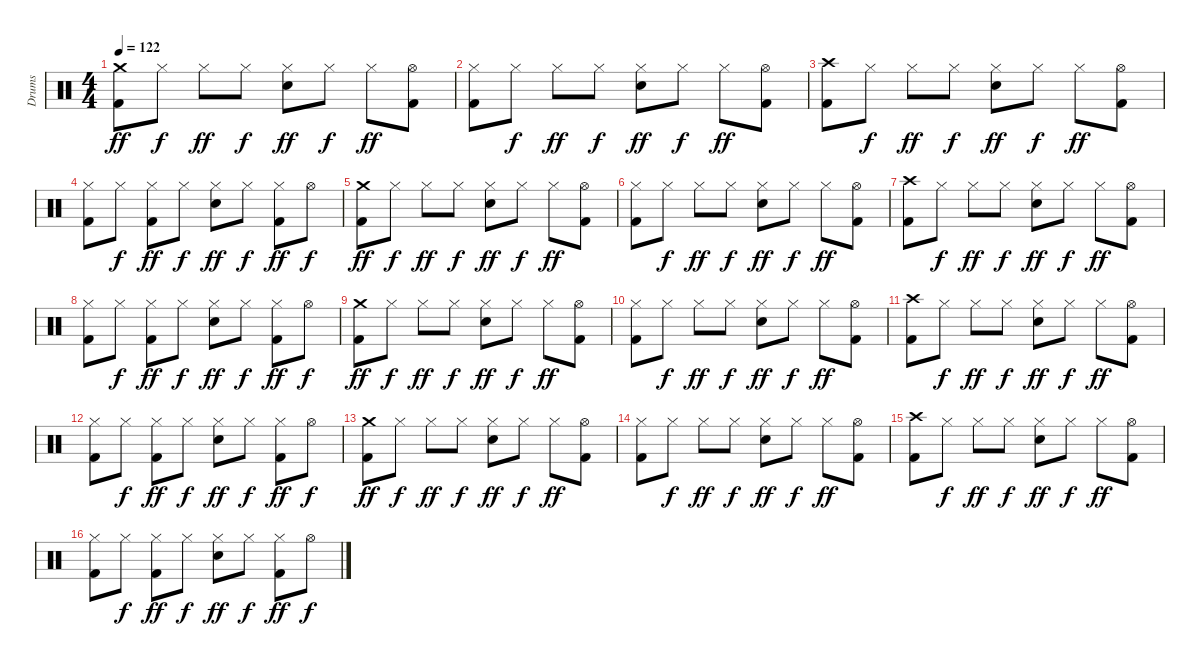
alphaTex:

\track ("Drums" "Drums") {instrument percussion}
\staff {score}
\articulation defaults
\ts (4 4)
\tempo 122
\clef neutral
\ks c
("Crash medium (hit)" "Kick (hit) 2").8{dy ff} "Hi-Hat (closed)".8{dy f} "Hi-Hat (closed)".8{dy ff} "Hi-Hat (closed)".8{dy f} ("Hi-Hat (closed)" "Snare (hit) 2").8{dy ff} "Hi-Hat (closed)".8{dy f} "Hi-Hat (closed)".8{dy ff} ("Hi-Hat (open)" "Kick (hit) 2").8 |
("Hi-Hat (closed)" "Kick (hit) 2").8 "Hi-Hat (closed)".8{dy f} "Hi-Hat (closed)".8{dy ff} "Hi-Hat (closed)".8{dy f} ("Hi-Hat (closed)" "Snare (hit) 2").8{dy ff} "Hi-Hat (closed)".8{dy f} "Hi-Hat (closed)".8{dy ff} ("Hi-Hat (open)" "Kick (hit) 2").8 |
("Crash high (hit)" "Kick (hit) 2").8 "Hi-Hat (closed)".8{dy f} "Hi-Hat (closed)".8{dy ff} "Hi-Hat (closed)".8{dy f} ("Hi-Hat (closed)" "Snare (hit) 2").8{dy ff} "Hi-Hat (closed)".8{dy f} "Hi-Hat (closed)".8{dy ff} ("Hi-Hat (open)" "Kick (hit) 2").8 |
("Hi-Hat (closed)" "Kick (hit) 2").8 "Hi-Hat (closed)".8{dy f} ("Hi-Hat (closed)" "Kick (hit) 2").8{dy ff} "Hi-Hat (closed)".8{dy f} ("Hi-Hat (closed)" "Snare (hit) 2").8{dy ff} "Hi-Hat (closed)".8{dy f} ("Hi-Hat (closed)" "Kick (hit) 2").8{dy ff} "Hi-Hat (open)".8{dy f} |
("Crash medium (hit)" "Kick (hit) 2").8{dy ff} "Hi-Hat (closed)".8{dy f} "Hi-Hat (closed)".8{dy ff} "Hi-Hat (closed)".8{dy f} ("Hi-Hat (closed)" "Snare (hit) 2").8{dy ff} "Hi-Hat (closed)".8{dy f} "Hi-Hat (closed)".8{dy ff} ("Hi-Hat (open)" "Kick (hit) 2").8 |
("Hi-Hat (closed)" "Kick (hit) 2").8 "Hi-Hat (closed)".8{dy f} "Hi-Hat (closed)".8{dy ff} "Hi-Hat (closed)".8{dy f} ("Hi-Hat (closed)" "Snare (hit) 2").8{dy ff} "Hi-Hat (closed)".8{dy f} "Hi-Hat (closed)".8{dy ff} ("Hi-Hat (open)" "Kick (hit) 2").8 |
("Crash high (hit)" "Kick (hit) 2").8 "Hi-Hat (closed)".8{dy f} "Hi-Hat (closed)".8{dy ff} "Hi-Hat (closed)".8{dy f} ("Hi-Hat (closed)" "Snare (hit) 2").8{dy ff} "Hi-Hat (closed)".8{dy f} "Hi-Hat (closed)".8{dy ff} ("Hi-Hat (open)" "Kick (hit) 2").8 |
("Hi-Hat (closed)" "Kick (hit) 2").8 "Hi-Hat (closed)".8{dy f} ("Hi-Hat (closed)" "Kick (hit) 2").8{dy ff} "Hi-Hat (closed)".8{dy f} ("Hi-Hat (closed)" "Snare (hit) 2").8{dy ff} "Hi-Hat (closed)".8{dy f} ("Hi-Hat (closed)" "Kick (hit) 2").8{dy ff} "Hi-Hat (open)".8{dy f} |
("Crash medium (hit)" "Kick (hit) 2").8{dy ff} "Hi-Hat (closed)".8{dy f} "Hi-Hat (closed)".8{dy ff} "Hi-Hat (closed)".8{dy f} ("Hi-Hat (closed)" "Snare (hit) 2").8{dy ff} "Hi-Hat (closed)".8{dy f} "Hi-Hat (closed)".8{dy ff} ("Hi-Hat (open)" "Kick (hit) 2").8 |
("Hi-Hat (closed)" "Kick (hit) 2").8 "Hi-Hat (closed)".8{dy f} "Hi-Hat (closed)".8{dy ff} "Hi-Hat (closed)".8{dy f} ("Hi-Hat (closed)" "Snare (hit) 2").8{dy ff} "Hi-Hat (closed)".8{dy f} "Hi-Hat (closed)".8{dy ff} ("Hi-Hat (open)" "Kick (hit) 2").8 |
("Crash high (hit)" "Kick (hit) 2").8 "Hi-Hat (closed)".8{dy f} "Hi-Hat (closed)".8{dy ff} "Hi-Hat (closed)".8{dy f} ("Hi-Hat (closed)" "Snare (hit) 2").8{dy ff} "Hi-Hat (closed)".8{dy f} "Hi-Hat (closed)".8{dy ff} ("Hi-Hat (open)" "Kick (hit) 2").8 |
("Hi-Hat (closed)" "Kick (hit) 2").8 "Hi-Hat (closed)".8{dy f} ("Hi-Hat (closed)" "Kick (hit) 2").8{dy ff} "Hi-Hat (closed)".8{dy f} ("Hi-Hat (closed)" "Snare (hit) 2").8{dy ff} "Hi-Hat (closed)".8{dy f} ("Hi-Hat (closed)" "Kick (hit) 2").8{dy ff} "Hi-Hat (open)".8{dy f} |
("Crash medium (hit)" "Kick (hit) 2").8{dy ff} "Hi-Hat (closed)".8{dy f} "Hi-Hat (closed)".8{dy ff} "Hi-Hat (closed)".8{dy f} ("Hi-Hat (closed)" "Snare (hit) 2").8{dy ff} "Hi-Hat (closed)".8{dy f} "Hi-Hat (closed)".8{dy ff} ("Hi-Hat (open)" "Kick (hit) 2").8 |
("Hi-Hat (closed)" "Kick (hit) 2").8 "Hi-Hat (closed)".8{dy f} "Hi-Hat (closed)".8{dy ff} "Hi-Hat (closed)".8{dy f} ("Hi-Hat (closed)" "Snare (hit) 2").8{dy ff} "Hi-Hat (closed)".8{dy f} "Hi-Hat (closed)".8{dy ff} ("Hi-Hat (open)" "Kick (hit) 2").8 |
("Crash high (hit)" "Kick (hit) 2").8 "Hi-Hat (closed)".8{dy f} "Hi-Hat (closed)".8{dy ff} "Hi-Hat (closed)".8{dy f} ("Hi-Hat (closed)" "Snare (hit) 2").8{dy ff} "Hi-Hat (closed)".8{dy f} "Hi-Hat (closed)".8{dy ff} ("Hi-Hat (open)" "Kick (hit) 2").8 |
("Hi-Hat (closed)" "Kick (hit) 2").8 "Hi-Hat (closed)".8{dy f} ("Hi-Hat (closed)" "Kick (hit) 2").8{dy ff} "Hi-Hat (closed)".8{dy f} ("Hi-Hat (closed)" "Snare (hit) 2").8{dy ff} "Hi-Hat (closed)".8{dy f} ("Hi-Hat (closed)" "Kick (hit) 2").8{dy ff} "Hi-Hat (open)".8{dy f}
